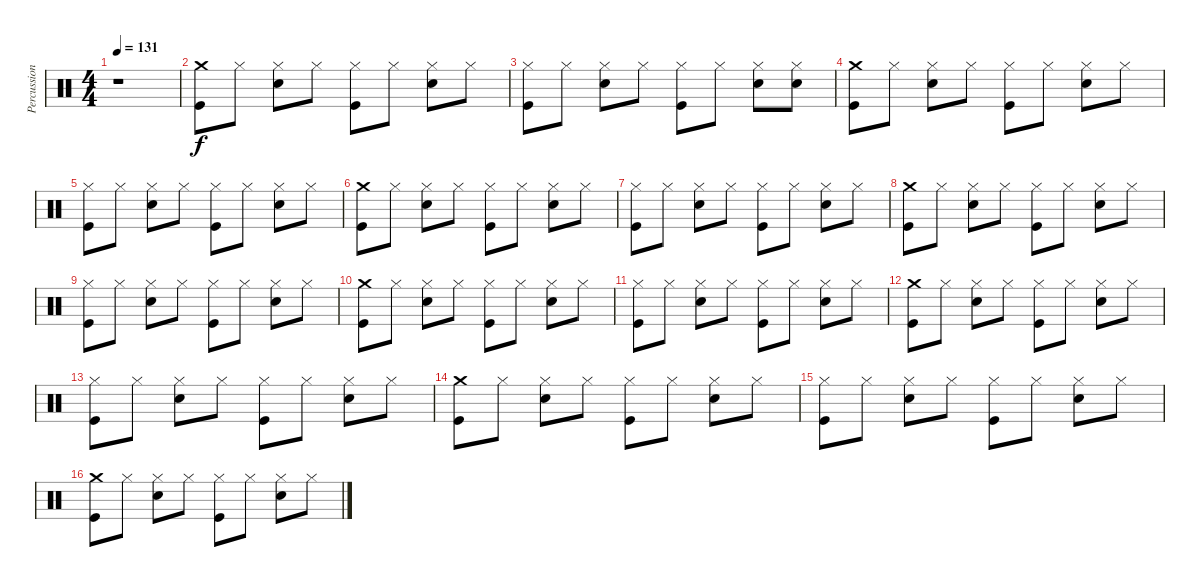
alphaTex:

\track ("Percussions" "Percussion") {instrument percussion}
\staff {score}
\articulation defaults
\ts (4 4)
\tempo 131
\clef neutral
\ks c
r.1{dy f} |
("Crash medium (hit)" "Kick (hit)").8 "Hi-Hat (closed)".8 ("Hi-Hat (closed)" "Snare (hit) 2").8 "Hi-Hat (closed)".8 ("Hi-Hat (closed)" "Kick (hit)").8 "Hi-Hat (closed)".8 ("Hi-Hat (closed)" "Snare (hit) 2").8 "Hi-Hat (closed)".8 |
("Hi-Hat (closed)" "Kick (hit)").8 "Hi-Hat (closed)".8 ("Hi-Hat (closed)" "Snare (hit) 2").8 "Hi-Hat (closed)".8 ("Hi-Hat (closed)" "Kick (hit)").8 "Hi-Hat (closed)".8 ("Hi-Hat (closed)" "Snare (hit) 2").8 ("Hi-Hat (closed)" "Snare (hit) 2").8 |
("Crash medium (hit)" "Kick (hit)").8 "Hi-Hat (closed)".8 ("Hi-Hat (closed)" "Snare (hit) 2").8 "Hi-Hat (closed)".8 ("Hi-Hat (closed)" "Kick (hit)").8 "Hi-Hat (closed)".8 ("Hi-Hat (closed)" "Snare (hit) 2").8 "Hi-Hat (closed)".8 |
("Hi-Hat (closed)" "Kick (hit)").8 "Hi-Hat (closed)".8 ("Hi-Hat (closed)" "Snare (hit) 2").8 "Hi-Hat (closed)".8 ("Hi-Hat (closed)" "Kick (hit)").8 "Hi-Hat (closed)".8 ("Hi-Hat (closed)" "Snare (hit) 2").8 "Hi-Hat (closed)".8 |
("Crash medium (hit)" "Kick (hit)").8 "Hi-Hat (closed)".8 ("Hi-Hat (closed)" "Snare (hit) 2").8 "Hi-Hat (closed)".8 ("Hi-Hat (closed)" "Kick (hit)").8 "Hi-Hat (closed)".8 ("Hi-Hat (closed)" "Snare (hit) 2").8 "Hi-Hat (closed)".8 |
("Hi-Hat (closed)" "Kick (hit)").8 "Hi-Hat (closed)".8 ("Hi-Hat (closed)" "Snare (hit) 2").8 "Hi-Hat (closed)".8 ("Hi-Hat (closed)" "Kick (hit)").8 "Hi-Hat (closed)".8 ("Hi-Hat (closed)" "Snare (hit) 2").8 "Hi-Hat (closed)".8 |
("Crash medium (hit)" "Kick (hit)").8 "Hi-Hat (closed)".8 ("Hi-Hat (closed)" "Snare (hit) 2").8 "Hi-Hat (closed)".8 ("Hi-Hat (closed)" "Kick (hit)").8 "Hi-Hat (closed)".8 ("Hi-Hat (closed)" "Snare (hit) 2").8 "Hi-Hat (closed)".8 |
("Hi-Hat (closed)" "Kick (hit)").8 "Hi-Hat (closed)".8 ("Hi-Hat (closed)" "Snare (hit) 2").8 "Hi-Hat (closed)".8 ("Hi-Hat (closed)" "Kick (hit)").8 "Hi-Hat (closed)".8 ("Hi-Hat (closed)" "Snare (hit) 2").8 "Hi-Hat (closed)".8 |
("Crash medium (hit)" "Kick (hit)").8 "Hi-Hat (closed)".8 ("Hi-Hat (closed)" "Snare (hit) 2").8 "Hi-Hat (closed)".8 ("Hi-Hat (closed)" "Kick (hit)").8 "Hi-Hat (closed)".8 ("Hi-Hat (closed)" "Snare (hit) 2").8 "Hi-Hat (closed)".8 |
("Hi-Hat (closed)" "Kick (hit)").8 "Hi-Hat (closed)".8 ("Hi-Hat (closed)" "Snare (hit) 2").8 "Hi-Hat (closed)".8 ("Hi-Hat (closed)" "Kick (hit)").8 "Hi-Hat (closed)".8 ("Hi-Hat (closed)" "Snare (hit) 2").8 "Hi-Hat (closed)".8 |
("Crash medium (hit)" "Kick (hit)").8 "Hi-Hat (closed)".8 ("Hi-Hat (closed)" "Snare (hit) 2").8 "Hi-Hat (closed)".8 ("Hi-Hat (closed)" "Kick (hit)").8 "Hi-Hat (closed)".8 ("Hi-Hat (closed)" "Snare (hit) 2").8 "Hi-Hat (closed)".8 |
("Hi-Hat (closed)" "Kick (hit)").8 "Hi-Hat (closed)".8 ("Hi-Hat (closed)" "Snare (hit) 2").8 "Hi-Hat (closed)".8 ("Hi-Hat (closed)" "Kick (hit)").8 "Hi-Hat (closed)".8 ("Hi-Hat (closed)" "Snare (hit) 2").8 "Hi-Hat (closed)".8 |
("Crash medium (hit)" "Kick (hit)").8 "Hi-Hat (closed)".8 ("Hi-Hat (closed)" "Snare (hit) 2").8 "Hi-Hat (closed)".8 ("Hi-Hat (closed)" "Kick (hit)").8 "Hi-Hat (closed)".8 ("Hi-Hat (closed)" "Snare (hit) 2").8 "Hi-Hat (closed)".8 |
("Hi-Hat (closed)" "Kick (hit)").8 "Hi-Hat (closed)".8 ("Hi-Hat (closed)" "Snare (hit) 2").8 "Hi-Hat (closed)".8 ("Hi-Hat (closed)" "Kick (hit)").8 "Hi-Hat (closed)".8 ("Hi-Hat (closed)" "Snare (hit) 2").8 "Hi-Hat (closed)".8 |
("Crash medium (hit)" "Kick (hit)").8 "Hi-Hat (closed)".8 ("Hi-Hat (closed)" "Snare (hit) 2").8 "Hi-Hat (closed)".8 ("Hi-Hat (closed)" "Kick (hit)").8 "Hi-Hat (closed)".8 ("Hi-Hat (closed)" "Snare (hit) 2").8 "Hi-Hat (closed)".8
